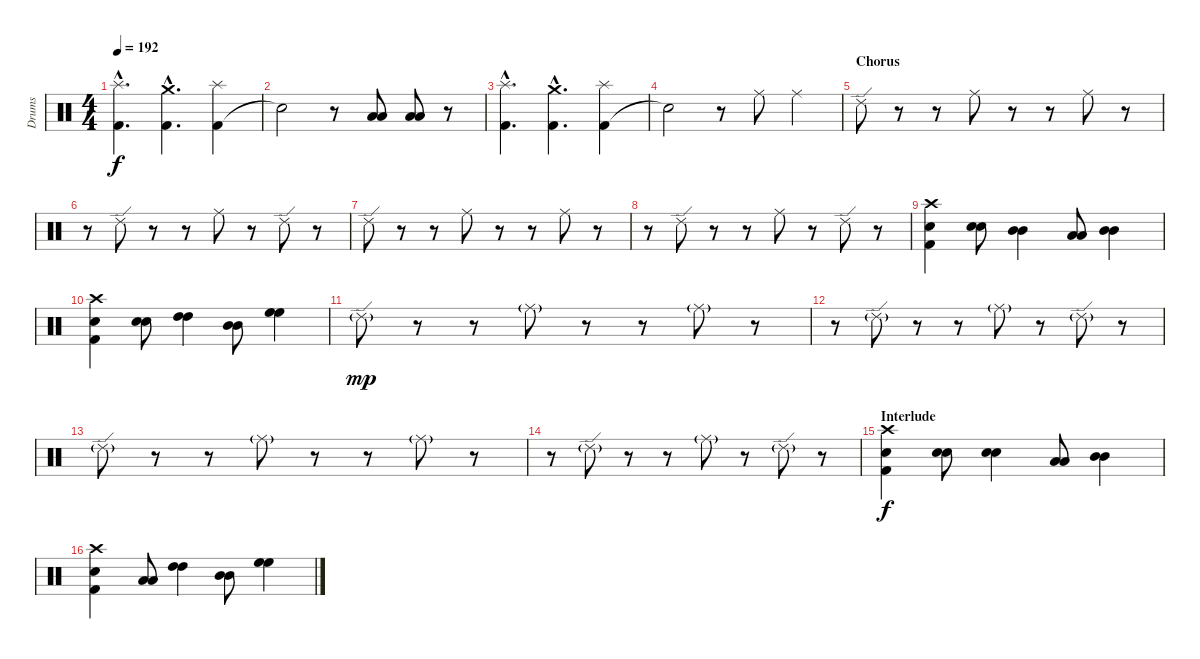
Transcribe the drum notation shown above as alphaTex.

\track ("Drums" "Drums") {instrument percussion}
\staff {score}
\articulation defaults
\ts (4 4)
\tempo 192
\clef neutral
\ks c
("Kick (hit) 2"{hac} "Splash (hit)"{hac}).4{d dy f} ("Kick (hit) 2"{hac} "Crash medium (hit)"{hac}).4{d} ("Kick (hit) 2" "Splash (hit)").4 |
"Snare (hit)"{t}.2 r.8 ("Low Tom (hit)" "Low Tom (hit)").8 ("Low Tom (hit)" "Low Tom (hit)").8 r.8 |
("Kick (hit) 2"{hac} "Splash (hit)"{hac}).4{d} ("Kick (hit) 2"{hac} "Crash medium (hit)"{hac}).4{d} ("Kick (hit) 2" "Splash (hit)").4 |
"Snare (hit)"{t}.2 r.8 "Ride (middle)".8 "Ride (middle)".4 |
\section ("" "Chorus")
"Ride (edge) 2".8 r.8 r.8 "Ride (middle)".8 r.8 r.8 "Ride (middle)".8 r.8 |
r.8 "Ride (edge) 2".8 r.8 r.8 "Ride (middle)".8 r.8 "Ride (edge) 2".8 r.8 |
"Ride (edge) 2".8 r.8 r.8 "Ride (middle)".8 r.8 r.8 "Ride (middle)".8 r.8 |
r.8 "Ride (edge) 2".8 r.8 r.8 "Ride (middle)".8 r.8 "Ride (edge) 2".8 r.8 |
("Kick (hit) 2" "Snare (hit) 2" "Crash high (hit)").4 ("Snare (hit) 2" "Snare (hit) 2").8 ("Mid Tom (hit)" "Mid Tom (hit)").4 ("Low Tom (hit)" "Low Tom (hit)").8 ("Mid Tom (hit)" "Mid Tom (hit)").4 |
("Kick (hit) 2" "Snare (hit) 2" "Crash high (hit)").4 ("Snare (hit) 2" "Snare (hit) 2").8 ("High Tom (hit)" "High Tom (hit)").4 ("Mid Tom (hit)" "Mid Tom (hit)").8 ("High Floor Tom (hit)" "High Floor Tom (hit)").4 |
"Ride (edge) 2"{g}.8{dy mp} r.8 r.8 "Ride (middle)"{g}.8 r.8 r.8 "Ride (middle)"{g}.8 r.8 |
r.8 "Ride (edge) 2"{g}.8 r.8 r.8 "Ride (middle)"{g}.8 r.8 "Ride (edge) 2"{g}.8 r.8 |
"Ride (edge) 2"{g}.8 r.8 r.8 "Ride (middle)"{g}.8 r.8 r.8 "Ride (middle)"{g}.8 r.8 |
r.8 "Ride (edge) 2"{g}.8 r.8 r.8 "Ride (middle)"{g}.8 r.8 "Ride (edge) 2"{g}.8 r.8 |
\section ("" "Interlude")
("Kick (hit) 2" "Snare (hit) 2" "Crash high (hit)").4{dy f} ("Snare (hit) 2" "Snare (hit) 2").8 ("Snare (hit) 2" "Snare (hit) 2").4 ("Low Tom (hit)" "Low Tom (hit)").8 ("Mid Tom (hit)" "Mid Tom (hit)").4 |
("Kick (hit) 2" "Snare (hit) 2" "Crash high (hit)").4 ("Low Tom (hit)" "Low Tom (hit)").8 ("High Tom (hit)" "High Tom (hit)").4 ("Mid Tom (hit)" "Mid Tom (hit)").8 ("High Floor Tom (hit)" "High Floor Tom (hit)").4
